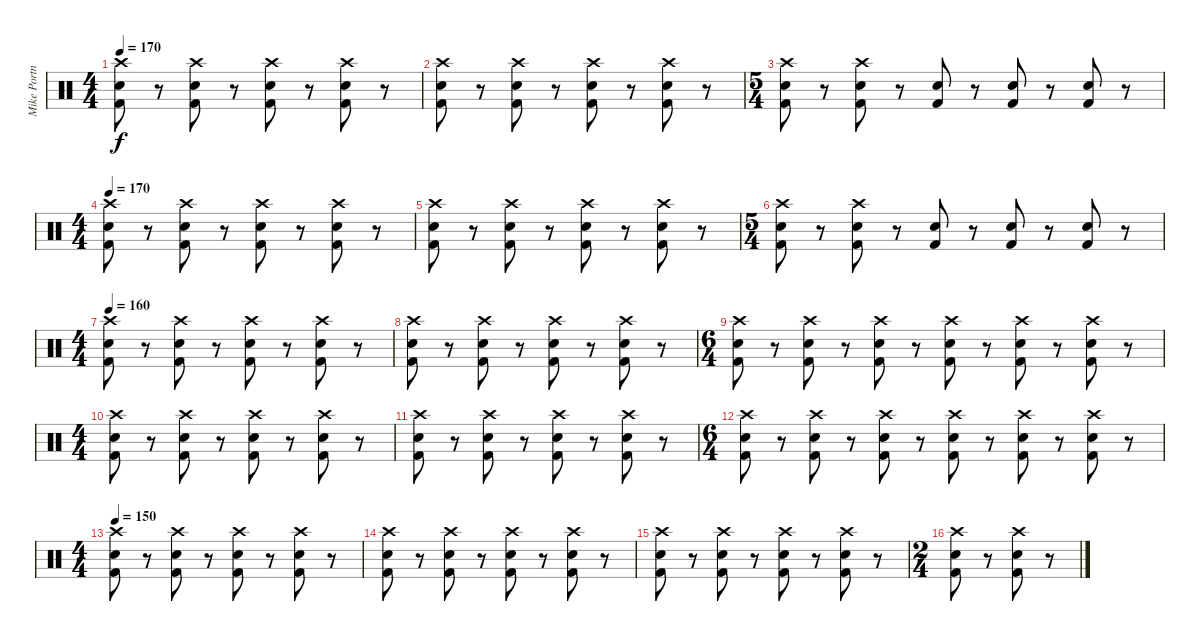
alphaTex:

\track ("Mike Portnoy" "Mike Portn") {instrument percussion}
\staff {score}
\articulation defaults
\ts (4 4)
\tempo 170
\clef neutral
\ks c
("Crash high (hit)" "Electric Snare (hit)" "Kick (hit) 2").8{dy f} r.8 ("Crash high (hit)" "Electric Snare (hit)" "Kick (hit) 2").8 r.8 ("Crash high (hit)" "Electric Snare (hit)" "Kick (hit) 2").8 r.8 ("Crash high (hit)" "Electric Snare (hit)" "Kick (hit) 2").8 r.8 |
("Crash high (hit)" "Electric Snare (hit)" "Kick (hit) 2").8 r.8 ("Crash high (hit)" "Electric Snare (hit)" "Kick (hit) 2").8 r.8 ("Crash high (hit)" "Electric Snare (hit)" "Kick (hit) 2").8 r.8 ("Crash high (hit)" "Electric Snare (hit)" "Kick (hit) 2").8 r.8 |
\ts (5 4)
("Crash high (hit)" "Electric Snare (hit)" "Kick (hit) 2").8 r.8 ("Crash high (hit)" "Electric Snare (hit)" "Kick (hit) 2").8 r.8 ("Electric Snare (hit)" "Kick (hit) 2").8 r.8 ("Electric Snare (hit)" "Kick (hit) 2").8 r.8 ("Electric Snare (hit)" "Kick (hit) 2").8 r.8 |
\ts (4 4)
\tempo 170
("Crash high (hit)" "Electric Snare (hit)" "Kick (hit) 2").8 r.8 ("Crash high (hit)" "Electric Snare (hit)" "Kick (hit) 2").8 r.8 ("Crash high (hit)" "Electric Snare (hit)" "Kick (hit) 2").8 r.8 ("Crash high (hit)" "Electric Snare (hit)" "Kick (hit) 2").8 r.8 |
("Crash high (hit)" "Electric Snare (hit)" "Kick (hit) 2").8 r.8 ("Crash high (hit)" "Electric Snare (hit)" "Kick (hit) 2").8 r.8 ("Crash high (hit)" "Electric Snare (hit)" "Kick (hit) 2").8 r.8 ("Crash high (hit)" "Electric Snare (hit)" "Kick (hit) 2").8 r.8 |
\ts (5 4)
("Crash high (hit)" "Electric Snare (hit)" "Kick (hit) 2").8 r.8 ("Crash high (hit)" "Electric Snare (hit)" "Kick (hit) 2").8 r.8 ("Electric Snare (hit)" "Kick (hit) 2").8 r.8 ("Electric Snare (hit)" "Kick (hit) 2").8 r.8 ("Electric Snare (hit)" "Kick (hit) 2").8 r.8 |
\ts (4 4)
\tempo 160
("Crash high (hit)" "Electric Snare (hit)" "Kick (hit) 2").8 r.8 ("Crash high (hit)" "Electric Snare (hit)" "Kick (hit) 2").8 r.8 ("Crash high (hit)" "Electric Snare (hit)" "Kick (hit) 2").8 r.8 ("Crash high (hit)" "Electric Snare (hit)" "Kick (hit) 2").8 r.8 |
("Crash high (hit)" "Electric Snare (hit)" "Kick (hit) 2").8 r.8 ("Crash high (hit)" "Electric Snare (hit)" "Kick (hit) 2").8 r.8 ("Crash high (hit)" "Electric Snare (hit)" "Kick (hit) 2").8 r.8 ("Crash high (hit)" "Electric Snare (hit)" "Kick (hit) 2").8 r.8 |
\ts (6 4)
("Crash high (hit)" "Electric Snare (hit)" "Kick (hit) 2").8 r.8 ("Crash high (hit)" "Electric Snare (hit)" "Kick (hit) 2").8 r.8 ("Crash high (hit)" "Electric Snare (hit)" "Kick (hit) 2").8 r.8 ("Crash high (hit)" "Electric Snare (hit)" "Kick (hit) 2").8 r.8 ("Crash high (hit)" "Electric Snare (hit)" "Kick (hit) 2").8 r.8 ("Crash high (hit)" "Electric Snare (hit)" "Kick (hit) 2").8 r.8 |
\ts (4 4)
("Crash high (hit)" "Electric Snare (hit)" "Kick (hit) 2").8 r.8 ("Crash high (hit)" "Electric Snare (hit)" "Kick (hit) 2").8 r.8 ("Crash high (hit)" "Electric Snare (hit)" "Kick (hit) 2").8 r.8 ("Crash high (hit)" "Electric Snare (hit)" "Kick (hit) 2").8 r.8 |
("Crash high (hit)" "Electric Snare (hit)" "Kick (hit) 2").8 r.8 ("Crash high (hit)" "Electric Snare (hit)" "Kick (hit) 2").8 r.8 ("Crash high (hit)" "Electric Snare (hit)" "Kick (hit) 2").8 r.8 ("Crash high (hit)" "Electric Snare (hit)" "Kick (hit) 2").8 r.8 |
\ts (6 4)
("Crash high (hit)" "Electric Snare (hit)" "Kick (hit) 2").8 r.8 ("Crash high (hit)" "Electric Snare (hit)" "Kick (hit) 2").8 r.8 ("Crash high (hit)" "Electric Snare (hit)" "Kick (hit) 2").8 r.8 ("Crash high (hit)" "Electric Snare (hit)" "Kick (hit) 2").8 r.8 ("Crash high (hit)" "Electric Snare (hit)" "Kick (hit) 2").8 r.8 ("Crash high (hit)" "Electric Snare (hit)" "Kick (hit) 2").8 r.8 |
\ts (4 4)
\tempo 150
("Crash high (hit)" "Electric Snare (hit)" "Kick (hit) 2").8 r.8 ("Crash high (hit)" "Electric Snare (hit)" "Kick (hit) 2").8 r.8 ("Crash high (hit)" "Electric Snare (hit)" "Kick (hit) 2").8 r.8 ("Crash high (hit)" "Electric Snare (hit)" "Kick (hit) 2").8 r.8 |
("Crash high (hit)" "Electric Snare (hit)" "Kick (hit) 2").8 r.8 ("Crash high (hit)" "Electric Snare (hit)" "Kick (hit) 2").8 r.8 ("Crash high (hit)" "Electric Snare (hit)" "Kick (hit) 2").8 r.8 ("Crash high (hit)" "Electric Snare (hit)" "Kick (hit) 2").8 r.8 |
("Crash high (hit)" "Electric Snare (hit)" "Kick (hit) 2").8 r.8 ("Crash high (hit)" "Electric Snare (hit)" "Kick (hit) 2").8 r.8 ("Crash high (hit)" "Electric Snare (hit)" "Kick (hit) 2").8 r.8 ("Crash high (hit)" "Electric Snare (hit)" "Kick (hit) 2").8 r.8 |
\ts (2 4)
("Crash high (hit)" "Electric Snare (hit)" "Kick (hit) 2").8 r.8 ("Crash high (hit)" "Electric Snare (hit)" "Kick (hit) 2").8 r.8
